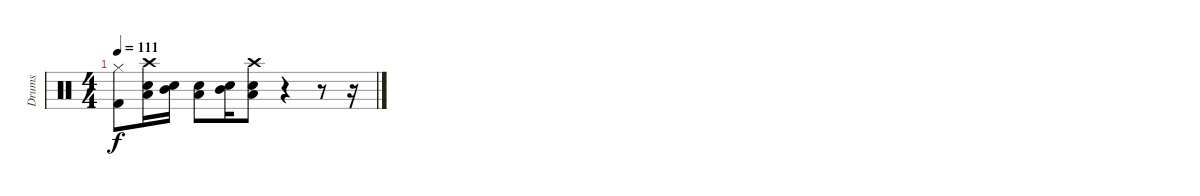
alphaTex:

\track ("Drums" "Drums") {instrument percussion}
\staff {score}
\articulation defaults
\ts (4 4)
\tempo 111
\clef neutral
\ks c
("Hi-Hat (closed)" "Kick (hit) 2").8{dy f} ("Crash high (hit)" "Electric Snare (hit)" "Low Tom (hit)").16 ("Electric Snare (hit)" "Mid Tom (hit)").16 ("Low Tom (hit)" "Electric Snare (hit)").8 ("Mid Tom (hit)" "Electric Snare (hit)").16 ("Low Tom (hit)" "Crash high (hit)" "Electric Snare (hit)").8 r.4 r.8 r.16
